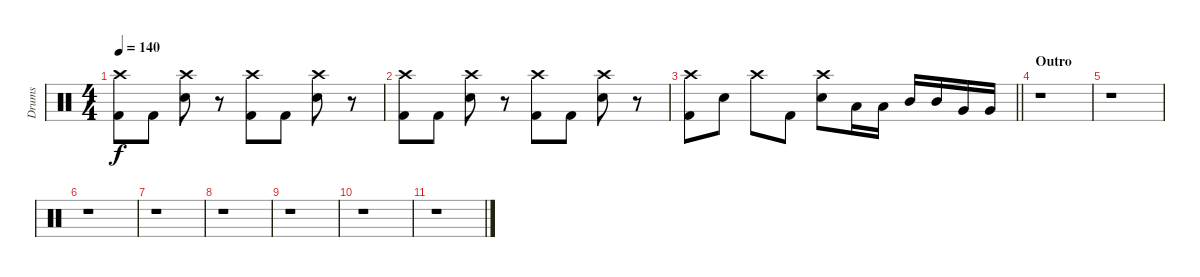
\track ("Drums" "Drums") {instrument percussion}
\staff {score}
\articulation defaults
\ts (4 4)
\tempo 140
\clef neutral
\ks c
("Crash high (hit)" "Kick (hit) 2").8{dy f} "Kick (hit) 2".8 ("Crash high (hit)" "Electric Snare (hit)").8 r.8 ("Crash high (hit)" "Kick (hit) 2").8 "Kick (hit) 2".8 ("Crash high (hit)" "Electric Snare (hit)").8 r.8 |
("Crash high (hit)" "Kick (hit) 2").8 "Kick (hit) 2".8 ("Crash high (hit)" "Electric Snare (hit)").8 r.8 ("Crash high (hit)" "Kick (hit) 2").8 "Kick (hit) 2".8 ("Crash high (hit)" "Electric Snare (hit)").8 r.8 |
\barLineRight lightlight
("Crash high (hit)" "Kick (hit) 2").8 "Electric Snare (hit)".8 "Crash high (hit)".8 "Kick (hit) 2".8 ("Crash high (hit)" "Electric Snare (hit)").8 "Low Tom (hit)".16 "Low Tom (hit)".16 "Mid Tom (hit)".16 "Mid Tom (hit)".16 "Very Low Tom (hit)".16 "Very Low Tom (hit)".16 |
\section ("" "Outro")
r.1 |
r.1 |
r.1 |
r.1 |
r.1 |
r.1 |
r.1 |
r.1
